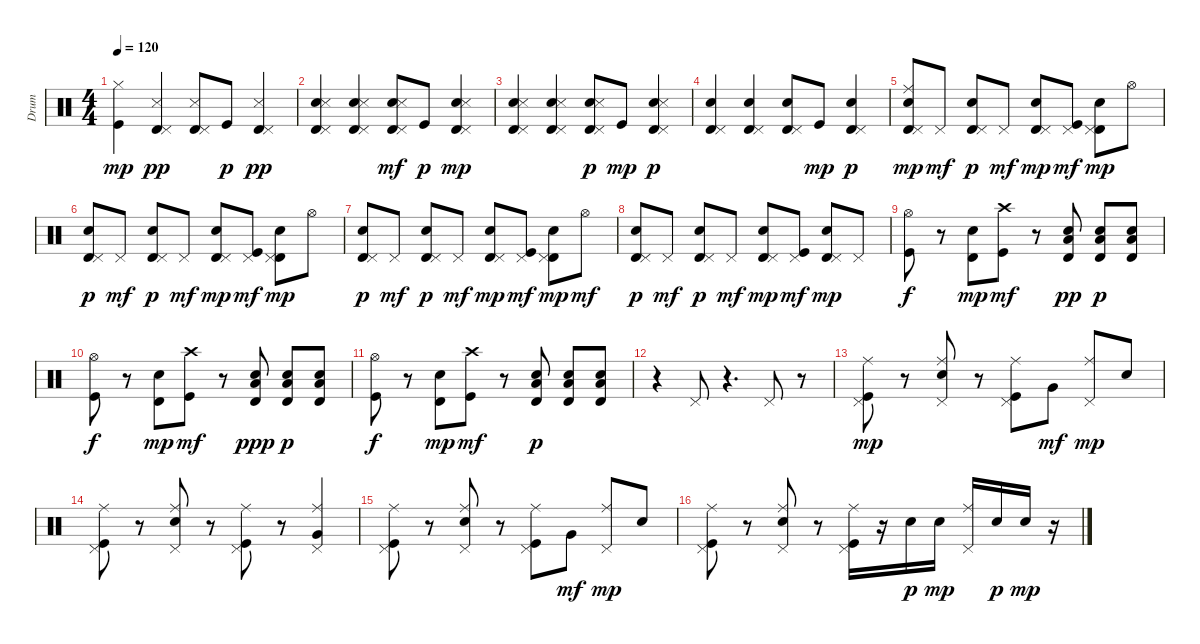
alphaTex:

\track ("Drum" "Drum") {instrument percussion}
\staff {score}
\articulation defaults
\ts (4 4)
\tempo 120
\clef neutral
\ks c
("Hi-Hat (closed)" "Kick (hit)").4{dy mp} ("Timbale high (hit)" "Snare (side stick) 3" "Pedal Hi-Hat (hit)").4{dy pp} ("Timbale high (hit)" "Snare (side stick) 3" "Pedal Hi-Hat (hit)").8 "Kick (hit)".8{dy p} ("Timbale high (hit)" "Snare (side stick) 3" "Pedal Hi-Hat (hit)").4{dy pp} |
("Electric Snare (hit)" "Timbale high (hit)" "Snare (side stick) 3" "Pedal Hi-Hat (hit)").4 ("Electric Snare (hit)" "Timbale high (hit)" "Snare (side stick) 3" "Pedal Hi-Hat (hit)").4 ("Electric Snare (hit)" "Timbale high (hit)" "Snare (side stick) 3" "Pedal Hi-Hat (hit)").8{dy mf} "Kick (hit)".8{dy p} ("Electric Snare (hit)" "Timbale high (hit)" "Snare (side stick) 3" "Pedal Hi-Hat (hit)").4{dy mp} |
("Electric Snare (hit)" "Timbale high (hit)" "Snare (side stick) 3" "Pedal Hi-Hat (hit)").4 ("Electric Snare (hit)" "Timbale high (hit)" "Snare (side stick) 3" "Pedal Hi-Hat (hit)").4 ("Electric Snare (hit)" "Timbale high (hit)" "Snare (side stick) 3" "Pedal Hi-Hat (hit)").8{dy p} "Kick (hit)".8{dy mp} ("Electric Snare (hit)" "Timbale high (hit)" "Snare (side stick) 3" "Pedal Hi-Hat (hit)").4{dy p} |
("Electric Snare (hit)" "Timbale high (hit)" "Pedal Hi-Hat (hit)").4 ("Electric Snare (hit)" "Timbale high (hit)" "Pedal Hi-Hat (hit)").4 ("Electric Snare (hit)" "Timbale high (hit)" "Pedal Hi-Hat (hit)").8 "Kick (hit)".8{dy mp} ("Electric Snare (hit)" "Timbale high (hit)" "Pedal Hi-Hat (hit)").4{dy p} |
("Electric Snare (hit)" "Timbale high (hit)" "Ride (middle)" "Pedal Hi-Hat (hit)").8{dy mp} "Pedal Hi-Hat (hit)".8{dy mf} ("Electric Snare (hit)" "Timbale high (hit)" "Pedal Hi-Hat (hit)").8{dy p} "Pedal Hi-Hat (hit)".8{dy mf} ("Electric Snare (hit)" "Timbale high (hit)" "Pedal Hi-Hat (hit)").8{dy mp} ("Kick (hit)" "Pedal Hi-Hat (hit)").8{dy mf} ("Electric Snare (hit)" "Timbale high (hit)" "Pedal Hi-Hat (hit)").8{dy mp} "Hi-Hat (open)".8 |
("Electric Snare (hit)" "Timbale high (hit)" "Pedal Hi-Hat (hit)").8{dy p} "Pedal Hi-Hat (hit)".8{dy mf} ("Electric Snare (hit)" "Timbale high (hit)" "Pedal Hi-Hat (hit)").8{dy p} "Pedal Hi-Hat (hit)".8{dy mf} ("Electric Snare (hit)" "Timbale high (hit)" "Pedal Hi-Hat (hit)").8{dy mp} ("Kick (hit)" "Pedal Hi-Hat (hit)").8{dy mf} ("Electric Snare (hit)" "Timbale high (hit)" "Pedal Hi-Hat (hit)").8{dy mp} "Hi-Hat (open)".8 |
("Electric Snare (hit)" "Timbale high (hit)" "Pedal Hi-Hat (hit)").8{dy p} "Pedal Hi-Hat (hit)".8{dy mf} ("Electric Snare (hit)" "Timbale high (hit)" "Pedal Hi-Hat (hit)").8{dy p} "Pedal Hi-Hat (hit)".8{dy mf} ("Electric Snare (hit)" "Timbale high (hit)" "Pedal Hi-Hat (hit)").8{dy mp} ("Kick (hit)" "Pedal Hi-Hat (hit)").8{dy mf} ("Electric Snare (hit)" "Timbale high (hit)" "Pedal Hi-Hat (hit)").8{dy mp} "Hi-Hat (open)".8{dy mf} |
("Electric Snare (hit)" "Timbale high (hit)" "Pedal Hi-Hat (hit)").8{dy p} "Pedal Hi-Hat (hit)".8{dy mf} ("Electric Snare (hit)" "Timbale high (hit)" "Pedal Hi-Hat (hit)").8{dy p} "Pedal Hi-Hat (hit)".8{dy mf} ("Electric Snare (hit)" "Timbale high (hit)" "Pedal Hi-Hat (hit)").8{dy mp} ("Kick (hit)" "Pedal Hi-Hat (hit)").8{dy mf} ("Electric Snare (hit)" "Timbale high (hit)" "Pedal Hi-Hat (hit)").8{dy mp} "Pedal Hi-Hat (hit)".8 |
("Hi-Hat (open)" "Kick (hit)").8{dy f} r.8 ("Timbale high (hit)" "Electric Snare (hit)").8{dy mp} ("Crash high (hit)" "Kick (hit)").8{dy mf} r.8 ("Low Tom (hit)" "Electric Snare (hit)" "Timbale high (hit)").8{dy pp} ("Low Tom (hit)" "Electric Snare (hit)" "Timbale high (hit)").8{dy p} ("Low Tom (hit)" "Electric Snare (hit)" "Timbale high (hit)").8 |
("Hi-Hat (open)" "Kick (hit)").8{dy f} r.8 ("Timbale high (hit)" "Electric Snare (hit)").8{dy mp} ("Crash high (hit)" "Kick (hit)").8{dy mf} r.8 ("Low Tom (hit)" "Electric Snare (hit)" "Timbale high (hit)").8{dy ppp} ("Low Tom (hit)" "Electric Snare (hit)" "Timbale high (hit)").8{dy p} ("Low Tom (hit)" "Electric Snare (hit)" "Timbale high (hit)").8 |
("Hi-Hat (open)" "Kick (hit)").8{dy f} r.8 ("Timbale high (hit)" "Electric Snare (hit)").8{dy mp} ("Crash high (hit)" "Kick (hit)").8{dy mf} r.8 ("Low Tom (hit)" "Electric Snare (hit)" "Timbale high (hit)").8{dy p} ("Low Tom (hit)" "Electric Snare (hit)" "Timbale high (hit)").8 ("Low Tom (hit)" "Electric Snare (hit)" "Timbale high (hit)").8 |
r.4 "Pedal Hi-Hat (hit)".8 r.4{d} "Pedal Hi-Hat (hit)".8 r.8 |
("Pedal Hi-Hat (hit)" "Ride (middle)" "Kick (hit)").8{dy mp} r.8 ("Pedal Hi-Hat (hit)" "Snare (hit) 2" "Ride (middle)").8 r.8 ("Pedal Hi-Hat (hit)" "Ride (middle)" "Kick (hit)").8 "Very Low Tom (hit)".8{dy mf} ("Pedal Hi-Hat (hit)" "Ride (middle)").8{dy mp} "Snare (hit) 2".8 |
("Pedal Hi-Hat (hit)" "Ride (middle)" "Kick (hit)").8 r.8 ("Pedal Hi-Hat (hit)" "Snare (hit) 2" "Ride (middle)").8 r.8 ("Pedal Hi-Hat (hit)" "Ride (middle)" "Kick (hit)").8 r.8 ("Pedal Hi-Hat (hit)" "Ride (middle)" "Very Low Tom (hit)").4 |
("Pedal Hi-Hat (hit)" "Ride (middle)" "Kick (hit)").8 r.8 ("Pedal Hi-Hat (hit)" "Snare (hit) 2" "Ride (middle)").8 r.8 ("Pedal Hi-Hat (hit)" "Ride (middle)" "Kick (hit)").8 "Very Low Tom (hit)".8{dy mf} ("Pedal Hi-Hat (hit)" "Ride (middle)").8{dy mp} "Snare (hit) 2".8 |
("Pedal Hi-Hat (hit)" "Ride (middle)" "Kick (hit)").8 r.8 ("Pedal Hi-Hat (hit)" "Snare (hit) 2" "Ride (middle)").8 r.8 ("Pedal Hi-Hat (hit)" "Ride (middle)" "Kick (hit)").16 r.16 "Snare (hit) 2".16{dy p} "Snare (hit) 2".16{dy mp} ("Pedal Hi-Hat (hit)" "Ride (middle)").16 "Snare (hit) 2".16{dy p} "Snare (hit) 2".16{dy mp} r.16
